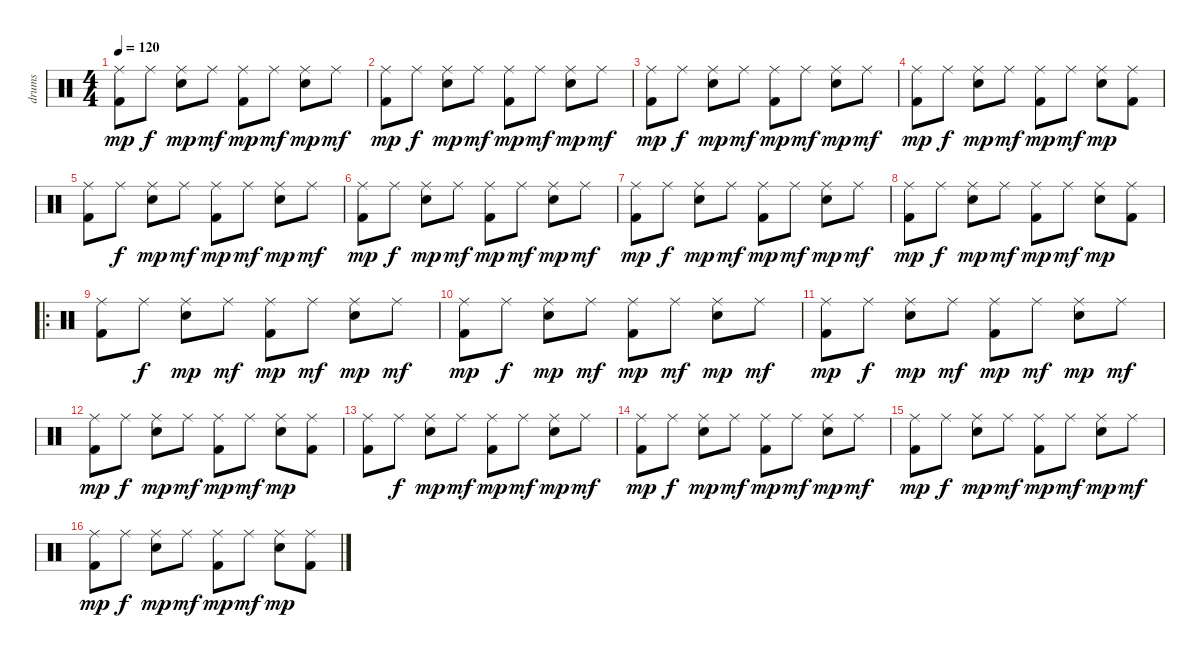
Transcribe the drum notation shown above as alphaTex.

\track ("drums" "drums") {instrument percussion}
\staff {score}
\articulation defaults
\ts (4 4)
\tempo 120
\clef neutral
\ks c
("Ride (middle)" "Kick (hit) 2").8{dy mp} "Ride (middle)".8{dy f} ("Ride (middle)" "Snare (hit) 2").8{dy mp} "Ride (middle)".8{dy mf} ("Ride (middle)" "Kick (hit) 2").8{dy mp} "Ride (middle)".8{dy mf} ("Ride (middle)" "Snare (hit) 2").8{dy mp} "Ride (middle)".8{dy mf} |
("Ride (middle)" "Kick (hit) 2").8{dy mp} "Ride (middle)".8{dy f} ("Ride (middle)" "Snare (hit) 2").8{dy mp} "Ride (middle)".8{dy mf} ("Ride (middle)" "Kick (hit) 2").8{dy mp} "Ride (middle)".8{dy mf} ("Ride (middle)" "Snare (hit) 2").8{dy mp} "Ride (middle)".8{dy mf} |
("Ride (middle)" "Kick (hit) 2").8{dy mp} "Ride (middle)".8{dy f} ("Ride (middle)" "Snare (hit) 2").8{dy mp} "Ride (middle)".8{dy mf} ("Ride (middle)" "Kick (hit) 2").8{dy mp} "Ride (middle)".8{dy mf} ("Ride (middle)" "Snare (hit) 2").8{dy mp} "Ride (middle)".8{dy mf} |
("Ride (middle)" "Kick (hit) 2").8{dy mp} "Ride (middle)".8{dy f} ("Ride (middle)" "Snare (hit) 2").8{dy mp} "Ride (middle)".8{dy mf} ("Ride (middle)" "Kick (hit) 2").8{dy mp} "Ride (middle)".8{dy mf} ("Ride (middle)" "Snare (hit) 2").8{dy mp} ("Ride (middle)" "Kick (hit) 2").8 |
("Ride (middle)" "Kick (hit) 2").8 "Ride (middle)".8{dy f} ("Ride (middle)" "Snare (hit) 2").8{dy mp} "Ride (middle)".8{dy mf} ("Ride (middle)" "Kick (hit) 2").8{dy mp} "Ride (middle)".8{dy mf} ("Ride (middle)" "Snare (hit) 2").8{dy mp} "Ride (middle)".8{dy mf} |
("Ride (middle)" "Kick (hit) 2").8{dy mp} "Ride (middle)".8{dy f} ("Ride (middle)" "Snare (hit) 2").8{dy mp} "Ride (middle)".8{dy mf} ("Ride (middle)" "Kick (hit) 2").8{dy mp} "Ride (middle)".8{dy mf} ("Ride (middle)" "Snare (hit) 2").8{dy mp} "Ride (middle)".8{dy mf} |
("Ride (middle)" "Kick (hit) 2").8{dy mp} "Ride (middle)".8{dy f} ("Ride (middle)" "Snare (hit) 2").8{dy mp} "Ride (middle)".8{dy mf} ("Ride (middle)" "Kick (hit) 2").8{dy mp} "Ride (middle)".8{dy mf} ("Ride (middle)" "Snare (hit) 2").8{dy mp} "Ride (middle)".8{dy mf} |
("Ride (middle)" "Kick (hit) 2").8{dy mp} "Ride (middle)".8{dy f} ("Ride (middle)" "Snare (hit) 2").8{dy mp} "Ride (middle)".8{dy mf} ("Ride (middle)" "Kick (hit) 2").8{dy mp} "Ride (middle)".8{dy mf} ("Ride (middle)" "Snare (hit) 2").8{dy mp} ("Ride (middle)" "Kick (hit) 2").8 |
\ro
("Ride (middle)" "Kick (hit) 2").8 "Ride (middle)".8{dy f} ("Ride (middle)" "Snare (hit) 2").8{dy mp} "Ride (middle)".8{dy mf} ("Ride (middle)" "Kick (hit) 2").8{dy mp} "Ride (middle)".8{dy mf} ("Ride (middle)" "Snare (hit) 2").8{dy mp} "Ride (middle)".8{dy mf} |
("Ride (middle)" "Kick (hit) 2").8{dy mp} "Ride (middle)".8{dy f} ("Ride (middle)" "Snare (hit) 2").8{dy mp} "Ride (middle)".8{dy mf} ("Ride (middle)" "Kick (hit) 2").8{dy mp} "Ride (middle)".8{dy mf} ("Ride (middle)" "Snare (hit) 2").8{dy mp} "Ride (middle)".8{dy mf} |
("Ride (middle)" "Kick (hit) 2").8{dy mp} "Ride (middle)".8{dy f} ("Ride (middle)" "Snare (hit) 2").8{dy mp} "Ride (middle)".8{dy mf} ("Ride (middle)" "Kick (hit) 2").8{dy mp} "Ride (middle)".8{dy mf} ("Ride (middle)" "Snare (hit) 2").8{dy mp} "Ride (middle)".8{dy mf} |
("Ride (middle)" "Kick (hit) 2").8{dy mp} "Ride (middle)".8{dy f} ("Ride (middle)" "Snare (hit) 2").8{dy mp} "Ride (middle)".8{dy mf} ("Ride (middle)" "Kick (hit) 2").8{dy mp} "Ride (middle)".8{dy mf} ("Ride (middle)" "Snare (hit) 2").8{dy mp} ("Ride (middle)" "Kick (hit) 2").8 |
("Ride (middle)" "Kick (hit) 2").8 "Ride (middle)".8{dy f} ("Ride (middle)" "Snare (hit) 2").8{dy mp} "Ride (middle)".8{dy mf} ("Ride (middle)" "Kick (hit) 2").8{dy mp} "Ride (middle)".8{dy mf} ("Ride (middle)" "Snare (hit) 2").8{dy mp} "Ride (middle)".8{dy mf} |
("Ride (middle)" "Kick (hit) 2").8{dy mp} "Ride (middle)".8{dy f} ("Ride (middle)" "Snare (hit) 2").8{dy mp} "Ride (middle)".8{dy mf} ("Ride (middle)" "Kick (hit) 2").8{dy mp} "Ride (middle)".8{dy mf} ("Ride (middle)" "Snare (hit) 2").8{dy mp} "Ride (middle)".8{dy mf} |
("Ride (middle)" "Kick (hit) 2").8{dy mp} "Ride (middle)".8{dy f} ("Ride (middle)" "Snare (hit) 2").8{dy mp} "Ride (middle)".8{dy mf} ("Ride (middle)" "Kick (hit) 2").8{dy mp} "Ride (middle)".8{dy mf} ("Ride (middle)" "Snare (hit) 2").8{dy mp} "Ride (middle)".8{dy mf} |
("Ride (middle)" "Kick (hit) 2").8{dy mp} "Ride (middle)".8{dy f} ("Ride (middle)" "Snare (hit) 2").8{dy mp} "Ride (middle)".8{dy mf} ("Ride (middle)" "Kick (hit) 2").8{dy mp} "Ride (middle)".8{dy mf} ("Ride (middle)" "Snare (hit) 2").8{dy mp} ("Ride (middle)" "Kick (hit) 2").8
